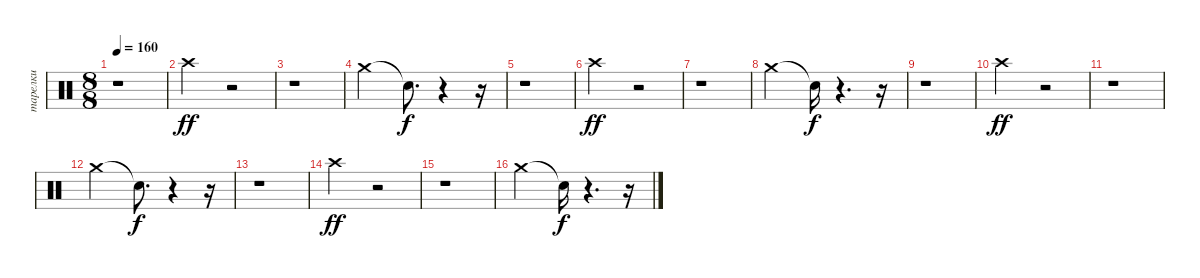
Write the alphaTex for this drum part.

\track ("тарелки" "тарелки") {instrument percussion}
\staff {score}
\articulation defaults
\ts (8 8)
\tempo 160
\clef neutral
\ks c
r.1{dy f} |
"Crash high (hit)".2{dy ff} r.2 |
r.1 |
"Crash medium (hit)".2 "Snare (hit)"{t}.8{d dy f} r.4 r.16 |
r.1 |
"Crash high (hit)".2{dy ff} r.2 |
r.1 |
"Crash medium (hit)".2 "Snare (hit)"{t}.16{dy f} r.4{d} r.16 |
r.1 |
"Crash high (hit)".2{dy ff} r.2 |
r.1 |
"Crash medium (hit)".2 "Snare (hit)"{t}.8{d dy f} r.4 r.16 |
r.1 |
"Crash high (hit)".2{dy ff} r.2 |
r.1 |
"Crash medium (hit)".2 "Snare (hit)"{t}.16{dy f} r.4{d} r.16
